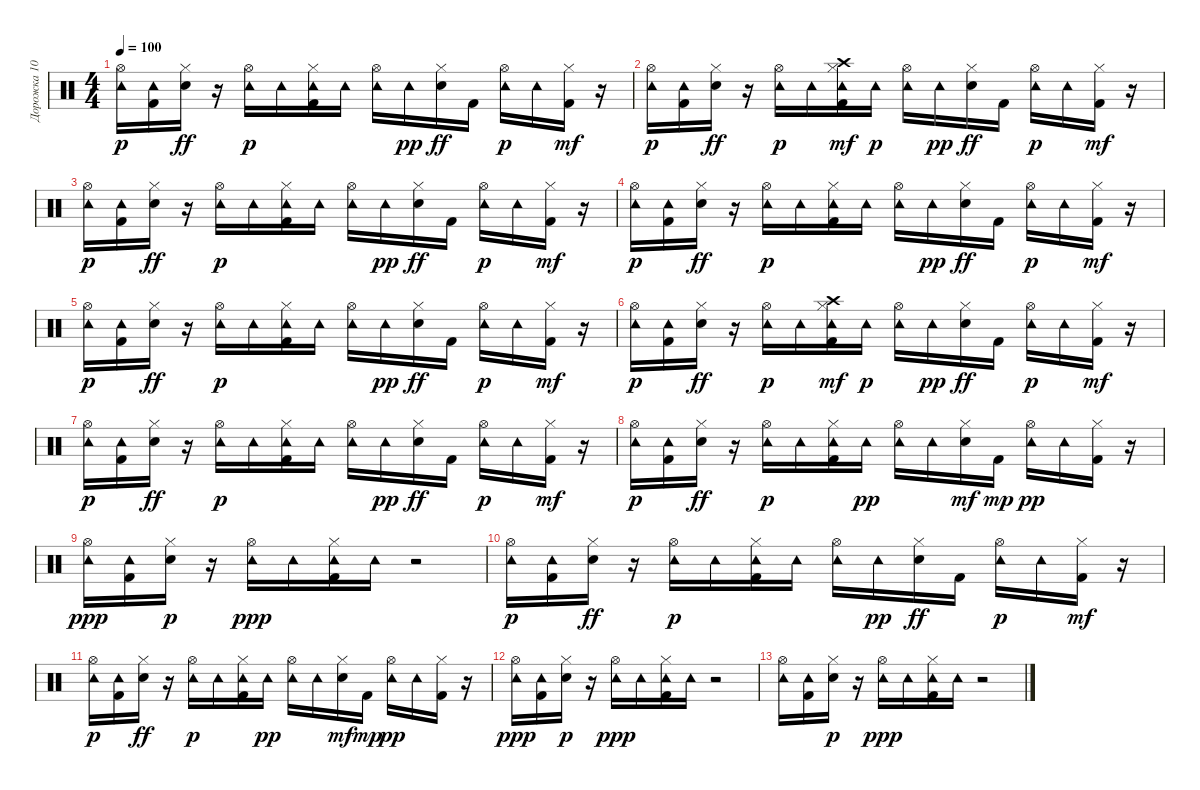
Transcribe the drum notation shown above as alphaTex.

\track ("Дорожка 10" "Дорожка 10") {instrument percussion}
\staff {score}
\articulation defaults
\ts (4 4)
\tempo 100
\clef neutral
\ks c
("Hi-Hat (open)" "Tambourine (hit)").16{dy p} ("Kick (hit) 2" "Tambourine (hit)").16 ("Hi-Hat (closed)" "Snare (hit) 2").16{dy ff} r.16 ("Hi-Hat (open)" "Tambourine (hit)").16{dy p} "Tambourine (hit)".16 ("Kick (hit) 2" "Hi-Hat (closed)" "Tambourine (hit)").16 "Tambourine (hit)".16 ("Hi-Hat (open)" "Tambourine (hit)").16 "Tambourine (hit)".16{dy pp} ("Hi-Hat (closed)" "Snare (hit) 2").16{dy ff} "Kick (hit) 2".16 ("Hi-Hat (open)" "Tambourine (hit)").16{dy p} "Tambourine (hit)".16 ("Kick (hit) 2" "Hi-Hat (closed)").16{dy mf} r.16 |
("Hi-Hat (open)" "Tambourine (hit)").16{dy p} ("Kick (hit) 2" "Tambourine (hit)").16 ("Hi-Hat (closed)" "Snare (hit) 2").16{dy ff} r.16 ("Hi-Hat (open)" "Tambourine (hit)").16{dy p} "Tambourine (hit)".16 ("Kick (hit) 2" "Hi-Hat (closed)" "Tambourine (hit)" "Crash high (hit)").16{dy mf} "Tambourine (hit)".16{dy p} ("Hi-Hat (open)" "Tambourine (hit)").16 "Tambourine (hit)".16{dy pp} ("Hi-Hat (closed)" "Snare (hit) 2").16{dy ff} "Kick (hit) 2".16 ("Hi-Hat (open)" "Tambourine (hit)").16{dy p} "Tambourine (hit)".16 ("Kick (hit) 2" "Hi-Hat (closed)").16{dy mf} r.16 |
("Hi-Hat (open)" "Tambourine (hit)").16{dy p} ("Kick (hit) 2" "Tambourine (hit)").16 ("Hi-Hat (closed)" "Snare (hit) 2").16{dy ff} r.16 ("Hi-Hat (open)" "Tambourine (hit)").16{dy p} "Tambourine (hit)".16 ("Kick (hit) 2" "Hi-Hat (closed)" "Tambourine (hit)").16 "Tambourine (hit)".16 ("Hi-Hat (open)" "Tambourine (hit)").16 "Tambourine (hit)".16{dy pp} ("Hi-Hat (closed)" "Snare (hit) 2").16{dy ff} "Kick (hit) 2".16 ("Hi-Hat (open)" "Tambourine (hit)").16{dy p} "Tambourine (hit)".16 ("Kick (hit) 2" "Hi-Hat (closed)").16{dy mf} r.16 |
("Hi-Hat (open)" "Tambourine (hit)").16{dy p} ("Kick (hit) 2" "Tambourine (hit)").16 ("Hi-Hat (closed)" "Snare (hit) 2").16{dy ff} r.16 ("Hi-Hat (open)" "Tambourine (hit)").16{dy p} "Tambourine (hit)".16 ("Kick (hit) 2" "Hi-Hat (closed)" "Tambourine (hit)").16 "Tambourine (hit)".16 ("Hi-Hat (open)" "Tambourine (hit)").16 "Tambourine (hit)".16{dy pp} ("Hi-Hat (closed)" "Snare (hit) 2").16{dy ff} "Kick (hit) 2".16 ("Hi-Hat (open)" "Tambourine (hit)").16{dy p} "Tambourine (hit)".16 ("Kick (hit) 2" "Hi-Hat (closed)").16{dy mf} r.16 |
("Hi-Hat (open)" "Tambourine (hit)").16{dy p} ("Kick (hit) 2" "Tambourine (hit)").16 ("Hi-Hat (closed)" "Snare (hit) 2").16{dy ff} r.16 ("Hi-Hat (open)" "Tambourine (hit)").16{dy p} "Tambourine (hit)".16 ("Kick (hit) 2" "Hi-Hat (closed)" "Tambourine (hit)").16 "Tambourine (hit)".16 ("Hi-Hat (open)" "Tambourine (hit)").16 "Tambourine (hit)".16{dy pp} ("Hi-Hat (closed)" "Snare (hit) 2").16{dy ff} "Kick (hit) 2".16 ("Hi-Hat (open)" "Tambourine (hit)").16{dy p} "Tambourine (hit)".16 ("Kick (hit) 2" "Hi-Hat (closed)").16{dy mf} r.16 |
("Hi-Hat (open)" "Tambourine (hit)").16{dy p} ("Kick (hit) 2" "Tambourine (hit)").16 ("Hi-Hat (closed)" "Snare (hit) 2").16{dy ff} r.16 ("Hi-Hat (open)" "Tambourine (hit)").16{dy p} "Tambourine (hit)".16 ("Kick (hit) 2" "Hi-Hat (closed)" "Tambourine (hit)" "Crash high (hit)").16{dy mf} "Tambourine (hit)".16{dy p} ("Hi-Hat (open)" "Tambourine (hit)").16 "Tambourine (hit)".16{dy pp} ("Hi-Hat (closed)" "Snare (hit) 2").16{dy ff} "Kick (hit) 2".16 ("Hi-Hat (open)" "Tambourine (hit)").16{dy p} "Tambourine (hit)".16 ("Kick (hit) 2" "Hi-Hat (closed)").16{dy mf} r.16 |
("Hi-Hat (open)" "Tambourine (hit)").16{dy p} ("Kick (hit) 2" "Tambourine (hit)").16 ("Hi-Hat (closed)" "Snare (hit) 2").16{dy ff} r.16 ("Hi-Hat (open)" "Tambourine (hit)").16{dy p} "Tambourine (hit)".16 ("Kick (hit) 2" "Hi-Hat (closed)" "Tambourine (hit)").16 "Tambourine (hit)".16 ("Hi-Hat (open)" "Tambourine (hit)").16 "Tambourine (hit)".16{dy pp} ("Hi-Hat (closed)" "Snare (hit) 2").16{dy ff} "Kick (hit) 2".16 ("Hi-Hat (open)" "Tambourine (hit)").16{dy p} "Tambourine (hit)".16 ("Kick (hit) 2" "Hi-Hat (closed)").16{dy mf} r.16 |
("Hi-Hat (open)" "Tambourine (hit)").16{dy p} ("Kick (hit) 2" "Tambourine (hit)").16 ("Hi-Hat (closed)" "Snare (hit) 2").16{dy ff} r.16 ("Hi-Hat (open)" "Tambourine (hit)").16{dy p} "Tambourine (hit)".16 ("Kick (hit) 2" "Hi-Hat (closed)" "Tambourine (hit)").16 "Tambourine (hit)".16{dy pp} ("Hi-Hat (open)" "Tambourine (hit)").16 "Tambourine (hit)".16 ("Hi-Hat (closed)" "Snare (hit) 2").16{dy mf} "Kick (hit) 2".16{dy mp} ("Hi-Hat (open)" "Tambourine (hit)").16{dy pp} "Tambourine (hit)".16 ("Kick (hit) 2" "Hi-Hat (closed)").16 r.16 |
("Hi-Hat (open)" "Tambourine (hit)").16{dy ppp} ("Kick (hit) 2" "Tambourine (hit)").16 ("Hi-Hat (closed)" "Snare (hit) 2").16{dy p} r.16 ("Hi-Hat (open)" "Tambourine (hit)").16{dy ppp} "Tambourine (hit)".16 ("Kick (hit) 2" "Hi-Hat (closed)" "Tambourine (hit)").16 "Tambourine (hit)".16 r.2 |
("Hi-Hat (open)" "Tambourine (hit)").16{dy p} ("Kick (hit) 2" "Tambourine (hit)").16 ("Hi-Hat (closed)" "Snare (hit) 2").16{dy ff} r.16 ("Hi-Hat (open)" "Tambourine (hit)").16{dy p} "Tambourine (hit)".16 ("Kick (hit) 2" "Hi-Hat (closed)" "Tambourine (hit)").16 "Tambourine (hit)".16 ("Hi-Hat (open)" "Tambourine (hit)").16 "Tambourine (hit)".16{dy pp} ("Hi-Hat (closed)" "Snare (hit) 2").16{dy ff} "Kick (hit) 2".16 ("Hi-Hat (open)" "Tambourine (hit)").16{dy p} "Tambourine (hit)".16 ("Kick (hit) 2" "Hi-Hat (closed)").16{dy mf} r.16 |
("Hi-Hat (open)" "Tambourine (hit)").16{dy p} ("Kick (hit) 2" "Tambourine (hit)").16 ("Hi-Hat (closed)" "Snare (hit) 2").16{dy ff} r.16 ("Hi-Hat (open)" "Tambourine (hit)").16{dy p} "Tambourine (hit)".16 ("Kick (hit) 2" "Hi-Hat (closed)" "Tambourine (hit)").16 "Tambourine (hit)".16{dy pp} ("Hi-Hat (open)" "Tambourine (hit)").16 "Tambourine (hit)".16 ("Hi-Hat (closed)" "Snare (hit) 2").16{dy mf} "Kick (hit) 2".16{dy mp} ("Hi-Hat (open)" "Tambourine (hit)").16{dy pp} "Tambourine (hit)".16 ("Kick (hit) 2" "Hi-Hat (closed)").16 r.16 |
("Hi-Hat (open)" "Tambourine (hit)").16{dy ppp} ("Kick (hit) 2" "Tambourine (hit)").16 ("Hi-Hat (closed)" "Snare (hit) 2").16{dy p} r.16 ("Hi-Hat (open)" "Tambourine (hit)").16{dy ppp} "Tambourine (hit)".16 ("Kick (hit) 2" "Hi-Hat (closed)" "Tambourine (hit)").16 "Tambourine (hit)".16 r.2 |
("Hi-Hat (open)" "Tambourine (hit)").16 ("Kick (hit) 2" "Tambourine (hit)").16 ("Hi-Hat (closed)" "Snare (hit) 2").16{dy p} r.16 ("Hi-Hat (open)" "Tambourine (hit)").16{dy ppp} "Tambourine (hit)".16 ("Kick (hit) 2" "Hi-Hat (closed)" "Tambourine (hit)").16 "Tambourine (hit)".16 r.2
